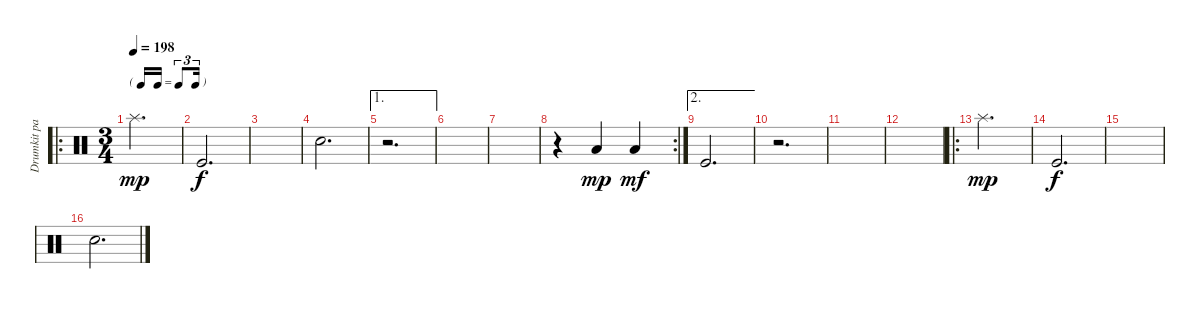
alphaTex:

\track ("Drumkit part 1" "Drumkit pa") {instrument percussion}
\staff {score}
\articulation defaults
\ro
\ts (3 4)
\tf triplet16th
\tempo 198
\clef neutral
\ks c "Splash (hit)".2{d dy mp}
|
"Kick (hit)".2{d dy f} |
|
"Snare (hit) 2".2{d} |
\ae 1
r.2{d} |
|
|
\rc 2
r.4 "Low Floor Tom (hit)".4{dy mp} "Low Floor Tom (hit)".4{dy mf} |
\ae 2 "Kick (hit)".2{d}
|
r.2{d} |
|
|
\ro "Splash (hit)".2{d dy mp}
|
"Kick (hit)".2{d dy f} |
|
"Snare (hit) 2".2{d}
